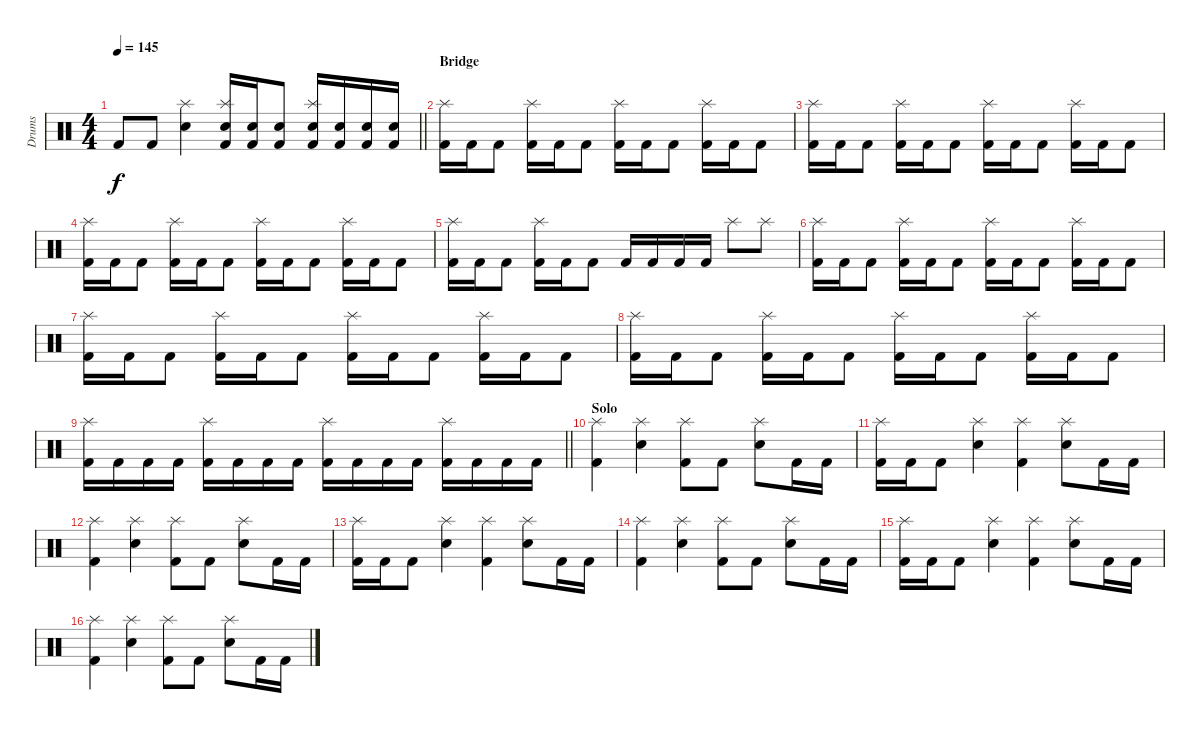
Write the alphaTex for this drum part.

\track ("Drums" "Drums") {instrument percussion}
\staff {score}
\articulation defaults
\ts (4 4)
\tempo 145
\clef neutral
\barLineRight lightlight
\ks c "Kick (hit) 2".8{dy f} "Kick (hit) 2".8
("Splash (hit)" "Electric Snare (hit)").4 ("Splash (hit)" "Electric Snare (hit)" "Kick (hit) 2").16 ("Electric Snare (hit)" "Kick (hit) 2").16 ("Electric Snare (hit)" "Kick (hit) 2").8 ("Splash (hit)" "Electric Snare (hit)" "Kick (hit) 2").16 ("Electric Snare (hit)" "Kick (hit) 2").16 ("Electric Snare (hit)" "Kick (hit) 2").16 ("Electric Snare (hit)" "Kick (hit) 2").16 |
\section ("" "Bridge")
("Splash (hit)" "Kick (hit) 2").16 "Kick (hit) 2".16 "Kick (hit) 2".8 ("Splash (hit)" "Kick (hit) 2").16 "Kick (hit) 2".16 "Kick (hit) 2".8 ("Splash (hit)" "Kick (hit) 2").16 "Kick (hit) 2".16 "Kick (hit) 2".8 ("Splash (hit)" "Kick (hit) 2").16 "Kick (hit) 2".16 "Kick (hit) 2".8 |
("Splash (hit)" "Kick (hit) 2").16 "Kick (hit) 2".16 "Kick (hit) 2".8 ("Splash (hit)" "Kick (hit) 2").16 "Kick (hit) 2".16 "Kick (hit) 2".8 ("Splash (hit)" "Kick (hit) 2").16 "Kick (hit) 2".16 "Kick (hit) 2".8 ("Splash (hit)" "Kick (hit) 2").16 "Kick (hit) 2".16 "Kick (hit) 2".8 |
("Splash (hit)" "Kick (hit) 2").16 "Kick (hit) 2".16 "Kick (hit) 2".8 ("Splash (hit)" "Kick (hit) 2").16 "Kick (hit) 2".16 "Kick (hit) 2".8 ("Splash (hit)" "Kick (hit) 2").16 "Kick (hit) 2".16 "Kick (hit) 2".8 ("Splash (hit)" "Kick (hit) 2").16 "Kick (hit) 2".16 "Kick (hit) 2".8 |
("Splash (hit)" "Kick (hit) 2").16 "Kick (hit) 2".16 "Kick (hit) 2".8 ("Splash (hit)" "Kick (hit) 2").16 "Kick (hit) 2".16 "Kick (hit) 2".8 "Kick (hit) 2".16 "Kick (hit) 2".16 "Kick (hit) 2".16 "Kick (hit) 2".16 "Splash (hit)".8 "Splash (hit)".8 |
("Splash (hit)" "Kick (hit) 2").16 "Kick (hit) 2".16 "Kick (hit) 2".8 ("Splash (hit)" "Kick (hit) 2").16 "Kick (hit) 2".16 "Kick (hit) 2".8 ("Splash (hit)" "Kick (hit) 2").16 "Kick (hit) 2".16 "Kick (hit) 2".8 ("Splash (hit)" "Kick (hit) 2").16 "Kick (hit) 2".16 "Kick (hit) 2".8 |
("Splash (hit)" "Kick (hit) 2").16 "Kick (hit) 2".16 "Kick (hit) 2".8 ("Splash (hit)" "Kick (hit) 2").16 "Kick (hit) 2".16 "Kick (hit) 2".8 ("Splash (hit)" "Kick (hit) 2").16 "Kick (hit) 2".16 "Kick (hit) 2".8 ("Splash (hit)" "Kick (hit) 2").16 "Kick (hit) 2".16 "Kick (hit) 2".8 |
("Splash (hit)" "Kick (hit) 2").16 "Kick (hit) 2".16 "Kick (hit) 2".8 ("Splash (hit)" "Kick (hit) 2").16 "Kick (hit) 2".16 "Kick (hit) 2".8 ("Splash (hit)" "Kick (hit) 2").16 "Kick (hit) 2".16 "Kick (hit) 2".8 ("Splash (hit)" "Kick (hit) 2").16 "Kick (hit) 2".16 "Kick (hit) 2".8 |
\barLineRight lightlight
("Splash (hit)" "Kick (hit) 2").16 "Kick (hit) 2".16 "Kick (hit) 2".16 "Kick (hit) 2".16 ("Splash (hit)" "Kick (hit) 2").16 "Kick (hit) 2".16 "Kick (hit) 2".16 "Kick (hit) 2".16 ("Splash (hit)" "Kick (hit) 2").16 "Kick (hit) 2".16 "Kick (hit) 2".16 "Kick (hit) 2".16 ("Splash (hit)" "Kick (hit) 2").16 "Kick (hit) 2".16 "Kick (hit) 2".16 "Kick (hit) 2".16 |
\section ("" "Solo")
("Splash (hit)" "Kick (hit) 2").4 ("Splash (hit)" "Electric Snare (hit)").4 ("Splash (hit)" "Kick (hit) 2").8 "Kick (hit) 2".8 ("Splash (hit)" "Electric Snare (hit)").8 "Kick (hit) 2".16 "Kick (hit) 2".16 |
("Splash (hit)" "Kick (hit) 2").16 "Kick (hit) 2".16 "Kick (hit) 2".8 ("Splash (hit)" "Electric Snare (hit)").4 ("Splash (hit)" "Kick (hit) 2").4 ("Splash (hit)" "Electric Snare (hit)").8 "Kick (hit) 2".16 "Kick (hit) 2".16 |
("Splash (hit)" "Kick (hit) 2").4 ("Splash (hit)" "Electric Snare (hit)").4 ("Splash (hit)" "Kick (hit) 2").8 "Kick (hit) 2".8 ("Splash (hit)" "Electric Snare (hit)").8 "Kick (hit) 2".16 "Kick (hit) 2".16 |
("Splash (hit)" "Kick (hit) 2").16 "Kick (hit) 2".16 "Kick (hit) 2".8 ("Splash (hit)" "Electric Snare (hit)").4 ("Splash (hit)" "Kick (hit) 2").4 ("Splash (hit)" "Electric Snare (hit)").8 "Kick (hit) 2".16 "Kick (hit) 2".16 |
("Splash (hit)" "Kick (hit) 2").4 ("Splash (hit)" "Electric Snare (hit)").4 ("Splash (hit)" "Kick (hit) 2").8 "Kick (hit) 2".8 ("Splash (hit)" "Electric Snare (hit)").8 "Kick (hit) 2".16 "Kick (hit) 2".16 |
("Splash (hit)" "Kick (hit) 2").16 "Kick (hit) 2".16 "Kick (hit) 2".8 ("Splash (hit)" "Electric Snare (hit)").4 ("Splash (hit)" "Kick (hit) 2").4 ("Splash (hit)" "Electric Snare (hit)").8 "Kick (hit) 2".16 "Kick (hit) 2".16 |
("Splash (hit)" "Kick (hit) 2").4 ("Splash (hit)" "Electric Snare (hit)").4 ("Splash (hit)" "Kick (hit) 2").8 "Kick (hit) 2".8 ("Splash (hit)" "Electric Snare (hit)").8 "Kick (hit) 2".16 "Kick (hit) 2".16
